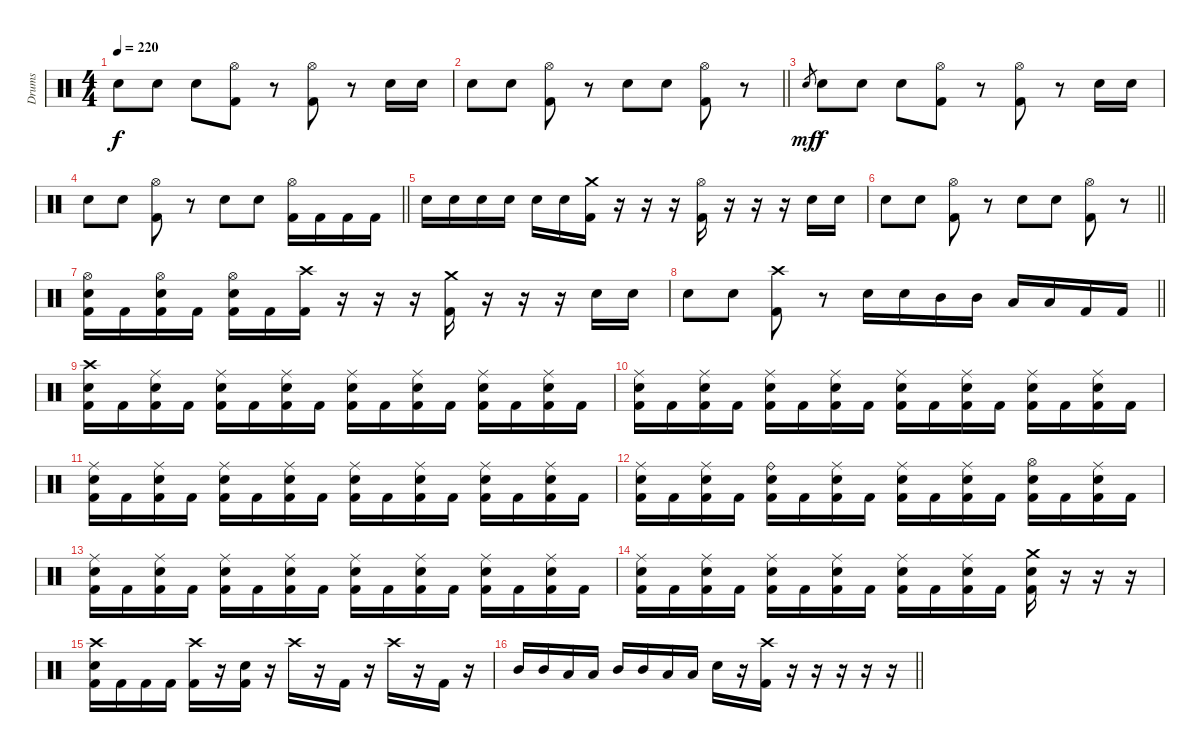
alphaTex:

\track ("Drums" "Drums") {instrument percussion}
\staff {score}
\articulation defaults
\ts (4 4)
\tempo 220
\clef neutral
\ks c "Electric Snare (hit)".8{dy f} "Electric Snare (hit)".8 "Electric Snare (hit)".8
("Kick (hit) 2" "Hi-Hat (open)").8 r.8 ("Kick (hit) 2" "Hi-Hat (open)").8 r.8 "Electric Snare (hit)".16 "Electric Snare (hit)".16 |
\barLineRight lightlight "Electric Snare (hit)".8 "Electric Snare (hit)".8
("Kick (hit) 2" "Hi-Hat (open)").8 r.8 "Electric Snare (hit)".8 "Electric Snare (hit)".8 ("Kick (hit) 2" "Hi-Hat (open)").8 r.8 |
"Electric Snare (hit)".8{gr dy mf} "Electric Snare (hit)".8{dy f} "Electric Snare (hit)".8 "Electric Snare (hit)".8 ("Kick (hit) 2" "Hi-Hat (open)").8 r.8 ("Kick (hit) 2" "Hi-Hat (open)").8 r.8 "Electric Snare (hit)".16 "Electric Snare (hit)".16 |
\barLineRight lightlight "Electric Snare (hit)".8 "Electric Snare (hit)".8
("Kick (hit) 2" "Hi-Hat (open)").8 r.8 "Electric Snare (hit)".8 "Electric Snare (hit)".8 ("Kick (hit) 2" "Hi-Hat (open)").16 "Kick (hit) 2".16 "Kick (hit) 2".16 "Kick (hit) 2".16 |
"Electric Snare (hit)".16 "Electric Snare (hit)".16 "Electric Snare (hit)".16 "Electric Snare (hit)".16 "Electric Snare (hit)".16 "Electric Snare (hit)".16 ("Kick (hit) 2" "Crash medium (hit)").16 r.16 r.16 r.16 ("Kick (hit) 2" "Hi-Hat (open)").16 r.16 r.16 r.16 "Electric Snare (hit)".16 "Electric Snare (hit)".16 |
\barLineRight lightlight "Electric Snare (hit)".8 "Electric Snare (hit)".8
("Kick (hit) 2" "Hi-Hat (open)").8 r.8 "Electric Snare (hit)".8 "Electric Snare (hit)".8 ("Kick (hit) 2" "Hi-Hat (open)").8 r.8 |
("Electric Snare (hit)" "Kick (hit) 2" "Hi-Hat (open)").16 "Kick (hit) 2".16 ("Electric Snare (hit)" "Kick (hit) 2" "Hi-Hat (open)").16 "Kick (hit) 2".16 ("Electric Snare (hit)" "Kick (hit) 2" "Hi-Hat (open)").16 "Kick (hit) 2".16 ("Kick (hit) 2" "Crash high (hit)").16 r.16 r.16 r.16 ("Kick (hit) 2" "Crash medium (hit)").16 r.16 r.16 r.16 "Electric Snare (hit)".16 "Electric Snare (hit)".16 |
\barLineRight lightlight "Electric Snare (hit)".8 "Electric Snare (hit)".8
("Kick (hit) 2" "Crash high (hit)").8 r.8 "Electric Snare (hit)".16 "Electric Snare (hit)".16 "Mid Tom (hit)".16 "Mid Tom (hit)".16 "Low Tom (hit)".16 "Low Tom (hit)".16 "Kick (hit) 2".16 "Kick (hit) 2".16 |
("Electric Snare (hit)" "Kick (hit) 2" "Crash high (hit)").16 "Kick (hit) 2".16 ("Electric Snare (hit)" "Kick (hit) 2" "Ride (middle)").16 "Kick (hit) 2".16 ("Electric Snare (hit)" "Kick (hit) 2" "Ride (middle)").16 "Kick (hit) 2".16 ("Electric Snare (hit)" "Kick (hit) 2" "Ride (middle)").16 "Kick (hit) 2".16 ("Electric Snare (hit)" "Kick (hit) 2" "Ride (middle)").16 "Kick (hit) 2".16 ("Electric Snare (hit)" "Kick (hit) 2" "Ride (middle)").16 "Kick (hit) 2".16 ("Electric Snare (hit)" "Kick (hit) 2" "Ride (middle)").16 "Kick (hit) 2".16 ("Electric Snare (hit)" "Kick (hit) 2" "Ride (middle)").16 "Kick (hit) 2".16 |
("Electric Snare (hit)" "Kick (hit) 2" "Ride (middle)").16 "Kick (hit) 2".16 ("Electric Snare (hit)" "Kick (hit) 2" "Ride (middle)").16 "Kick (hit) 2".16 ("Electric Snare (hit)" "Kick (hit) 2" "Ride (middle)").16 "Kick (hit) 2".16 ("Electric Snare (hit)" "Kick (hit) 2" "Ride (middle)").16 "Kick (hit) 2".16 ("Electric Snare (hit)" "Kick (hit) 2" "Ride (middle)").16 "Kick (hit) 2".16 ("Electric Snare (hit)" "Kick (hit) 2" "Ride (middle)").16 "Kick (hit) 2".16 ("Electric Snare (hit)" "Kick (hit) 2" "Ride (middle)").16 "Kick (hit) 2".16 ("Electric Snare (hit)" "Kick (hit) 2" "Ride (middle)").16 "Kick (hit) 2".16 |
("Electric Snare (hit)" "Kick (hit) 2" "Ride (middle)").16 "Kick (hit) 2".16 ("Electric Snare (hit)" "Kick (hit) 2" "Ride (middle)").16 "Kick (hit) 2".16 ("Electric Snare (hit)" "Kick (hit) 2" "Ride (middle)").16 "Kick (hit) 2".16 ("Electric Snare (hit)" "Kick (hit) 2" "Ride (middle)").16 "Kick (hit) 2".16 ("Electric Snare (hit)" "Kick (hit) 2" "Ride (middle)").16 "Kick (hit) 2".16 ("Electric Snare (hit)" "Kick (hit) 2" "Ride (middle)").16 "Kick (hit) 2".16 ("Electric Snare (hit)" "Kick (hit) 2" "Ride (middle)").16 "Kick (hit) 2".16 ("Electric Snare (hit)" "Kick (hit) 2" "Ride (middle)").16 "Kick (hit) 2".16 |
("Electric Snare (hit)" "Kick (hit) 2" "Ride (middle)").16 "Kick (hit) 2".16 ("Electric Snare (hit)" "Kick (hit) 2" "Ride (middle)").16 "Kick (hit) 2".16 ("Electric Snare (hit)" "Kick (hit) 2" "Ride (bell)").16 "Kick (hit) 2".16 ("Electric Snare (hit)" "Kick (hit) 2" "Ride (middle)").16 "Kick (hit) 2".16 ("Electric Snare (hit)" "Kick (hit) 2" "Ride (middle)").16 "Kick (hit) 2".16 ("Electric Snare (hit)" "Kick (hit) 2" "Ride (middle)").16 "Kick (hit) 2".16 ("Electric Snare (hit)" "Kick (hit) 2" "Hi-Hat (open)").16 "Kick (hit) 2".16 ("Electric Snare (hit)" "Kick (hit) 2" "Ride (middle)").16 "Kick (hit) 2".16 |
("Electric Snare (hit)" "Kick (hit) 2" "Ride (middle)").16 "Kick (hit) 2".16 ("Electric Snare (hit)" "Kick (hit) 2" "Ride (middle)").16 "Kick (hit) 2".16 ("Electric Snare (hit)" "Kick (hit) 2" "Ride (middle)").16 "Kick (hit) 2".16 ("Electric Snare (hit)" "Kick (hit) 2" "Ride (middle)").16 "Kick (hit) 2".16 ("Electric Snare (hit)" "Kick (hit) 2" "Ride (middle)").16 "Kick (hit) 2".16 ("Electric Snare (hit)" "Kick (hit) 2" "Ride (middle)").16 "Kick (hit) 2".16 ("Electric Snare (hit)" "Kick (hit) 2" "Ride (middle)").16 "Kick (hit) 2".16 ("Electric Snare (hit)" "Kick (hit) 2" "Ride (middle)").16 "Kick (hit) 2".16 |
("Electric Snare (hit)" "Kick (hit) 2" "Ride (middle)").16 "Kick (hit) 2".16 ("Electric Snare (hit)" "Kick (hit) 2" "Ride (middle)").16 "Kick (hit) 2".16 ("Electric Snare (hit)" "Kick (hit) 2" "Ride (middle)").16 "Kick (hit) 2".16 ("Electric Snare (hit)" "Kick (hit) 2" "Ride (middle)").16 "Kick (hit) 2".16 ("Electric Snare (hit)" "Kick (hit) 2" "Ride (middle)").16 "Kick (hit) 2".16 ("Electric Snare (hit)" "Kick (hit) 2" "Ride (middle)").16 "Kick (hit) 2".16 ("Electric Snare (hit)" "Kick (hit) 2" "Crash medium (hit)").16 r.16 r.16 r.16 |
("Kick (hit) 2" "Electric Snare (hit)" "Crash high (hit)").16 "Kick (hit) 2".16 "Kick (hit) 2".16 "Kick (hit) 2".16 ("Kick (hit) 2" "Crash high (hit)").16 r.16 ("Kick (hit) 2" "Electric Snare (hit)").16 r.16 "Crash high (hit)".16 r.16 "Kick (hit) 2".16 r.16 "Crash high (hit)".16 r.16 "Kick (hit) 2".16 r.16 |
\barLineRight lightlight "Mid Tom (hit)".16 "Mid Tom (hit)".16 "Low Tom (hit)".16 "Low Tom (hit)".16 "Mid Tom (hit)".16 "Mid Tom (hit)".16 "Low Tom (hit)".16 "Low Tom (hit)".16 "Electric Snare (hit)".16
r.16 ("Kick (hit) 2" "Crash high (hit)").16 r.16 r.16 r.16 r.16 r.16
